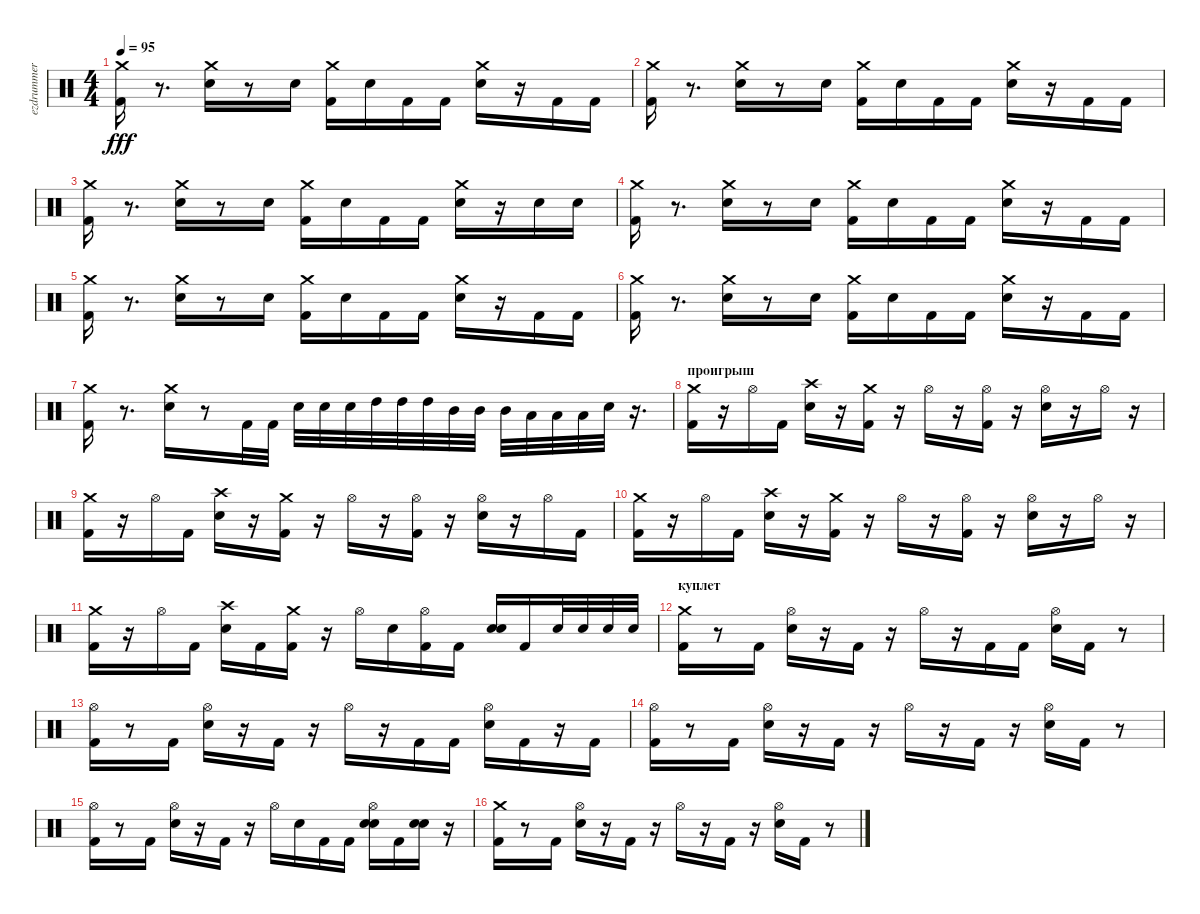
\track ("ezdrummer 01" "ezdrummer ") {instrument percussion}
\staff {score}
\articulation defaults
\ts (4 4)
\tempo 95
\clef neutral
\ks c
("Kick (hit) 2" "Crash medium (hit)").16{dy fff} r.8{d} ("Snare (hit) 2" "Crash medium (hit)").16 r.8 "Snare (hit) 2".16 ("Kick (hit) 2" "Crash medium (hit)").16 "Snare (hit) 2".16 "Kick (hit) 2".16 "Kick (hit) 2".16 ("Snare (hit) 2" "Crash medium (hit)").16 r.16 "Kick (hit) 2".16 "Kick (hit) 2".16 |
("Kick (hit) 2" "Crash medium (hit)").16 r.8{d} ("Snare (hit) 2" "Crash medium (hit)").16 r.8 "Snare (hit) 2".16 ("Kick (hit) 2" "Crash medium (hit)").16 "Snare (hit) 2".16 "Kick (hit) 2".16 "Kick (hit) 2".16 ("Snare (hit) 2" "Crash medium (hit)").16 r.16 "Kick (hit) 2".16 "Kick (hit) 2".16 |
("Kick (hit) 2" "Crash medium (hit)").16 r.8{d} ("Snare (hit) 2" "Crash medium (hit)").16 r.8 "Snare (hit) 2".16 ("Kick (hit) 2" "Crash medium (hit)").16 "Snare (hit) 2".16 "Kick (hit) 2".16 "Kick (hit) 2".16 ("Snare (hit) 2" "Crash medium (hit)").16 r.16 "Snare (hit) 2".16 "Snare (hit) 2".16 |
("Kick (hit) 2" "Crash medium (hit)").16 r.8{d} ("Snare (hit) 2" "Crash medium (hit)").16 r.8 "Snare (hit) 2".16 ("Kick (hit) 2" "Crash medium (hit)").16 "Snare (hit) 2".16 "Kick (hit) 2".16 "Kick (hit) 2".16 ("Snare (hit) 2" "Crash medium (hit)").16 r.16 "Kick (hit) 2".16 "Kick (hit) 2".16 |
("Kick (hit) 2" "Crash medium (hit)").16 r.8{d} ("Snare (hit) 2" "Crash medium (hit)").16 r.8 "Snare (hit) 2".16 ("Kick (hit) 2" "Crash medium (hit)").16 "Snare (hit) 2".16 "Kick (hit) 2".16 "Kick (hit) 2".16 ("Snare (hit) 2" "Crash medium (hit)").16 r.16 "Kick (hit) 2".16 "Kick (hit) 2".16 |
("Kick (hit) 2" "Crash medium (hit)").16 r.8{d} ("Snare (hit) 2" "Crash medium (hit)").16 r.8 "Snare (hit) 2".16 ("Kick (hit) 2" "Crash medium (hit)").16 "Snare (hit) 2".16 "Kick (hit) 2".16 "Kick (hit) 2".16 ("Snare (hit) 2" "Crash medium (hit)").16 r.16 "Kick (hit) 2".16 "Kick (hit) 2".16 |
("Kick (hit) 2" "Crash medium (hit)").16 r.8{d} ("Snare (hit) 2" "Crash medium (hit)").16 r.8 "Kick (hit) 2".32 "Kick (hit) 2".32 "Snare (hit) 2".32 "Snare (hit) 2".32 "Snare (hit) 2".32 "High Tom (hit)".32 "High Tom (hit)".32 "High Tom (hit)".32 "Mid Tom (hit)".32 "Mid Tom (hit)".32 "Mid Tom (hit)".32 "Low Tom (hit)".32 "Low Tom (hit)".32 "Low Tom (hit)".32 "Snare (hit) 2".32 r.16{d} |
\section ("" "проигрыш")
("Kick (hit) 2" "Crash medium (hit)").16 r.16 "Hi-Hat (open)".16 "Kick (hit) 2".16 ("Snare (hit) 2" "Crash high (hit)").16 r.16 ("Kick (hit) 2" "Crash medium (hit)").16 r.16 "Hi-Hat (open)".16 r.16 ("Kick (hit) 2" "Hi-Hat (open)").16 r.16 ("Snare (hit) 2" "Hi-Hat (open)").16 r.16 "Hi-Hat (open)".16 r.16 |
("Kick (hit) 2" "Crash medium (hit)").16 r.16 "Hi-Hat (open)".16 "Kick (hit) 2".16 ("Snare (hit) 2" "Crash high (hit)").16 r.16 ("Kick (hit) 2" "Crash medium (hit)").16 r.16 "Hi-Hat (open)".16 r.16 ("Kick (hit) 2" "Hi-Hat (open)").16 r.16 ("Snare (hit) 2" "Hi-Hat (open)").16 r.16 "Hi-Hat (open)".16 "Kick (hit) 2".16 |
("Kick (hit) 2" "Crash medium (hit)").16 r.16 "Hi-Hat (open)".16 "Kick (hit) 2".16 ("Snare (hit) 2" "Crash high (hit)").16 r.16 ("Kick (hit) 2" "Crash medium (hit)").16 r.16 "Hi-Hat (open)".16 r.16 ("Kick (hit) 2" "Hi-Hat (open)").16 r.16 ("Snare (hit) 2" "Hi-Hat (open)").16 r.16 "Hi-Hat (open)".16 r.16 |
("Kick (hit) 2" "Crash medium (hit)").16 r.16 "Hi-Hat (open)".16 "Kick (hit) 2".16 ("Snare (hit) 2" "Crash high (hit)").16 "Kick (hit) 2".16 ("Kick (hit) 2" "Crash medium (hit)").16 r.16 "Hi-Hat (open)".16 "Snare (hit) 2".16 ("Kick (hit) 2" "Hi-Hat (open)").16 "Kick (hit) 2".16 ("Snare (hit) 2" "Snare (hit) 2").16 "Kick (hit) 2".16 "Snare (hit) 2".32 "Snare (hit) 2".32 "Snare (hit) 2".32 "Snare (hit) 2".32 |
\section ("" "куплет")
("Kick (hit) 2" "Crash medium (hit)").16 r.8 "Kick (hit) 2".16 ("Snare (hit) 2" "Hi-Hat (open)").16 r.16 "Kick (hit) 2".16 r.16 "Hi-Hat (open)".16 r.16 "Kick (hit) 2".16 "Kick (hit) 2".16 ("Snare (hit) 2" "Hi-Hat (open)").16 "Kick (hit) 2".16 r.8 |
("Kick (hit) 2" "Hi-Hat (open)").16 r.8 "Kick (hit) 2".16 ("Snare (hit) 2" "Hi-Hat (open)").16 r.16 "Kick (hit) 2".16 r.16 "Hi-Hat (open)".16 r.16 "Kick (hit) 2".16 "Kick (hit) 2".16 ("Snare (hit) 2" "Hi-Hat (open)").16 "Kick (hit) 2".16 r.16 "Kick (hit) 2".16 |
("Kick (hit) 2" "Hi-Hat (open)").16 r.8 "Kick (hit) 2".16 ("Snare (hit) 2" "Hi-Hat (open)").16 r.16 "Kick (hit) 2".16 r.16 "Hi-Hat (open)".16 r.16 "Kick (hit) 2".16 r.16 ("Snare (hit) 2" "Hi-Hat (open)").16 "Kick (hit) 2".16 r.8 |
("Kick (hit) 2" "Hi-Hat (open)").16 r.8 "Kick (hit) 2".16 ("Snare (hit) 2" "Hi-Hat (open)").16 r.16 "Kick (hit) 2".16 r.16 "Hi-Hat (open)".16 "Snare (hit) 2".16 "Kick (hit) 2".16 "Kick (hit) 2".16 ("Snare (hit) 2" "Snare (hit) 2" "Hi-Hat (open)").16 "Kick (hit) 2".16 ("Snare (hit) 2" "Snare (hit) 2").16 r.16 |
("Kick (hit) 2" "Crash medium (hit)").16 r.8 "Kick (hit) 2".16 ("Snare (hit) 2" "Hi-Hat (open)").16 r.16 "Kick (hit) 2".16 r.16 "Hi-Hat (open)".16 r.16 "Kick (hit) 2".16 r.16 ("Snare (hit) 2" "Hi-Hat (open)").16 "Kick (hit) 2".16 r.8
